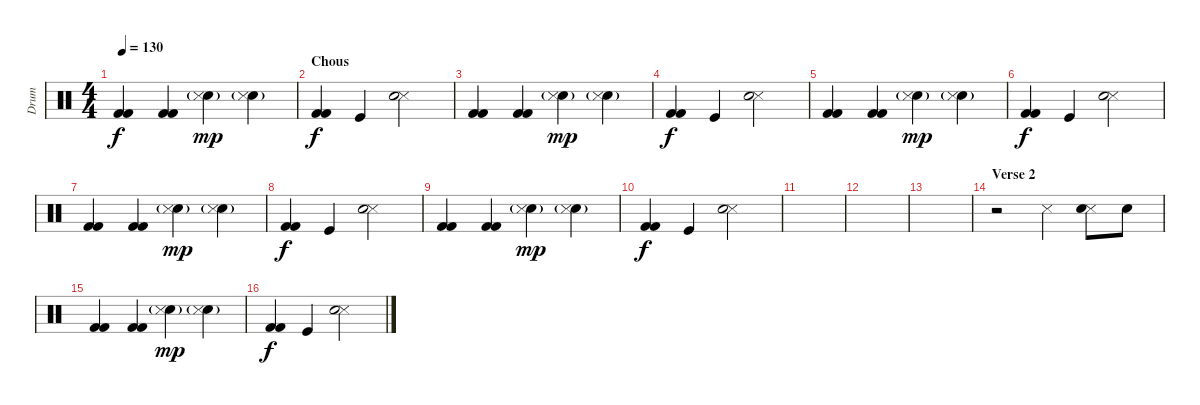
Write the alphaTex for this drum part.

\track ("Drum" "Drum") {instrument percussion}
\staff {score}
\articulation defaults
\ts (4 4)
\tempo 130
\clef neutral
\ks c
("Kick (hit) 2" "Kick (hit) 2").4{dy f} ("Kick (hit) 2" "Kick (hit) 2").4 ("Snare (hit) 2" "Snare (side stick) 3"{g}).4{dy mp} ("Snare (hit) 2"{g} "Snare (side stick) 3").4 |
\section ("" "Chous")
("Kick (hit) 2" "Kick (hit) 2").4{dy f} "Kick (hit)".4 ("Snare (side stick) 3" "Snare (hit) 2").2 |
("Kick (hit) 2" "Kick (hit) 2").4 ("Kick (hit) 2" "Kick (hit) 2").4 ("Snare (hit) 2" "Snare (side stick) 3"{g}).4{dy mp} ("Snare (hit) 2"{g} "Snare (side stick) 3").4 |
("Kick (hit) 2" "Kick (hit) 2").4{dy f} "Kick (hit)".4 ("Snare (side stick) 3" "Snare (hit) 2").2 |
("Kick (hit) 2" "Kick (hit) 2").4 ("Kick (hit) 2" "Kick (hit) 2").4 ("Snare (hit) 2" "Snare (side stick) 3"{g}).4{dy mp} ("Snare (hit) 2"{g} "Snare (side stick) 3").4 |
("Kick (hit) 2" "Kick (hit) 2").4{dy f} "Kick (hit)".4 ("Snare (side stick) 3" "Snare (hit) 2").2 |
("Kick (hit) 2" "Kick (hit) 2").4 ("Kick (hit) 2" "Kick (hit) 2").4 ("Snare (hit) 2" "Snare (side stick) 3"{g}).4{dy mp} ("Snare (hit) 2"{g} "Snare (side stick) 3").4 |
("Kick (hit) 2" "Kick (hit) 2").4{dy f} "Kick (hit)".4 ("Snare (side stick) 3" "Snare (hit) 2").2 |
("Kick (hit) 2" "Kick (hit) 2").4 ("Kick (hit) 2" "Kick (hit) 2").4 ("Snare (hit) 2" "Snare (side stick) 3"{g}).4{dy mp} ("Snare (hit) 2"{g} "Snare (side stick) 3").4 |
("Kick (hit) 2" "Kick (hit) 2").4{dy f} "Kick (hit)".4 ("Snare (side stick) 3" "Snare (hit) 2").2 |
|
|
|
\section ("" "Verse 2")
r.2 "Snare (side stick) 3".4 ("Snare (side stick) 3" "Snare (hit) 2").8 "Snare (hit) 2".8 |
("Kick (hit) 2" "Kick (hit) 2").4 ("Kick (hit) 2" "Kick (hit) 2").4 ("Snare (hit) 2" "Snare (side stick) 3"{g}).4{dy mp} ("Snare (hit) 2"{g} "Snare (side stick) 3").4 |
("Kick (hit) 2" "Kick (hit) 2").4{dy f} "Kick (hit)".4 ("Snare (side stick) 3" "Snare (hit) 2").2
